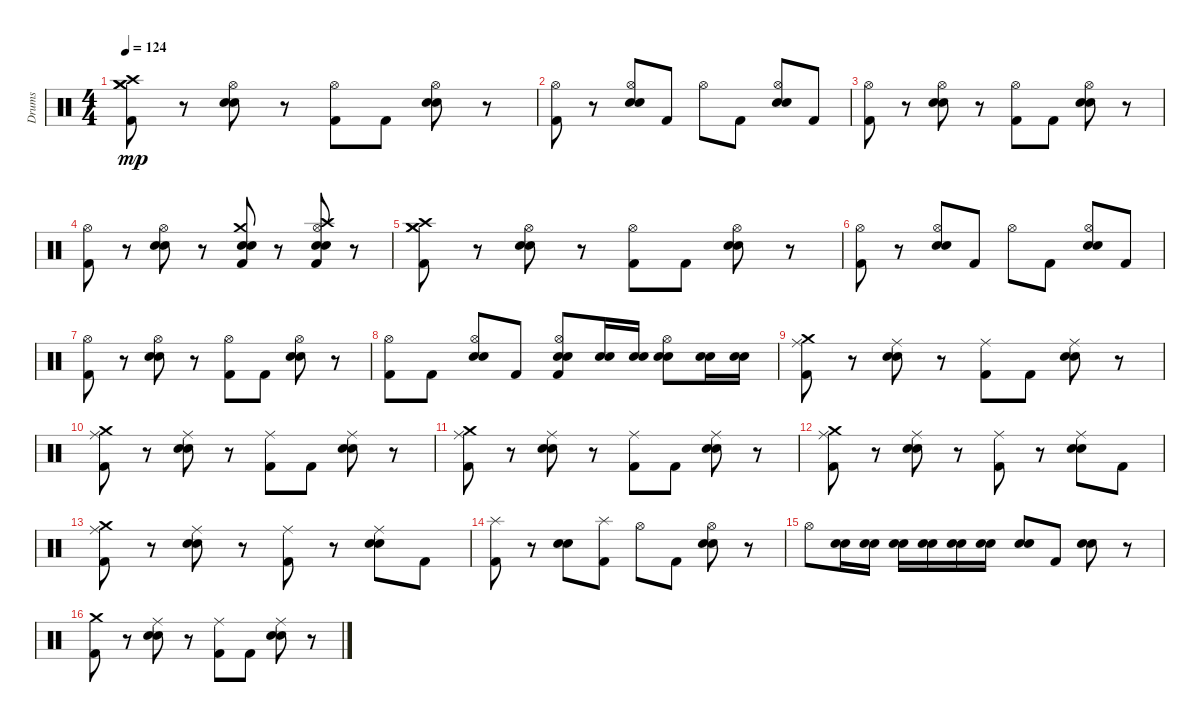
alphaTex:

\track ("Drums" "Drums") {instrument percussion}
\staff {score}
\articulation defaults
\ts (4 4)
\tempo 124
\clef neutral
\ks c
("Kick (hit) 2" "Crash medium (hit)" "Crash high (hit)" "Crash medium (hit)").8{dy mp} r.8 ("Snare (hit) 2" "Hi-Hat (open)" "Electric Snare (hit)").8 r.8 ("Kick (hit) 2" "Hi-Hat (open)").8 "Kick (hit) 2".8 ("Electric Snare (hit)" "Hi-Hat (open)" "Snare (hit) 2").8 r.8 |
("Kick (hit) 2" "Hi-Hat (open)").8 r.8 ("Hi-Hat (open)" "Snare (hit) 2" "Electric Snare (hit)").8 "Kick (hit) 2".8 "Hi-Hat (open)".8 "Kick (hit) 2".8 ("Electric Snare (hit)" "Snare (hit) 2" "Hi-Hat (open)").8 "Kick (hit) 2".8 |
("Kick (hit) 2" "Hi-Hat (open)").8 r.8 ("Electric Snare (hit)" "Hi-Hat (open)" "Snare (hit) 2").8 r.8 ("Kick (hit) 2" "Hi-Hat (open)").8 "Kick (hit) 2".8 ("Hi-Hat (open)" "Snare (hit) 2" "Electric Snare (hit)").8 r.8 |
("Kick (hit) 2" "Hi-Hat (open)").8 r.8 ("Electric Snare (hit)" "Hi-Hat (open)" "Snare (hit) 2").8 r.8 ("Electric Snare (hit)" "Snare (hit) 2" "Crash medium (hit)" "Kick (hit) 2").8 r.8 ("Kick (hit) 2" "Electric Snare (hit)" "Snare (hit) 2" "Hi-Hat (open)" "Crash high (hit)").8 r.8 |
("Crash high (hit)" "Crash medium (hit)" "Kick (hit) 2" "Crash medium (hit)").8 r.8 ("Snare (hit) 2" "Electric Snare (hit)" "Hi-Hat (open)").8 r.8 ("Hi-Hat (open)" "Kick (hit) 2").8 "Kick (hit) 2".8 ("Hi-Hat (open)" "Snare (hit) 2" "Electric Snare (hit)").8 r.8 |
("Kick (hit) 2" "Hi-Hat (open)").8 r.8 ("Snare (hit) 2" "Electric Snare (hit)" "Hi-Hat (open)").8 "Kick (hit) 2".8 "Hi-Hat (open)".8 "Kick (hit) 2".8 ("Snare (hit) 2" "Electric Snare (hit)" "Hi-Hat (open)").8 "Kick (hit) 2".8 |
("Hi-Hat (open)" "Kick (hit) 2").8 r.8 ("Snare (hit) 2" "Hi-Hat (open)" "Electric Snare (hit)").8 r.8 ("Kick (hit) 2" "Hi-Hat (open)").8 "Kick (hit) 2".8 ("Hi-Hat (open)" "Electric Snare (hit)" "Snare (hit) 2").8 r.8 |
("Kick (hit) 2" "Hi-Hat (open)").8 "Kick (hit) 2".8 ("Snare (hit) 2" "Hi-Hat (open)" "Electric Snare (hit)").8 "Kick (hit) 2".8 ("Kick (hit) 2" "Snare (hit) 2" "Hi-Hat (open)" "Electric Snare (hit)").8 ("Electric Snare (hit)" "Snare (hit) 2").16 ("Electric Snare (hit)" "Snare (hit) 2").16 ("Electric Snare (hit)" "Hi-Hat (open)" "Snare (hit) 2").8 ("Snare (hit) 2" "Electric Snare (hit)").16 ("Electric Snare (hit)" "Snare (hit) 2").16 |
("Ride (middle)" "Crash medium (hit)" "Kick (hit) 2").8 r.8 ("Ride (middle)" "Electric Snare (hit)" "Snare (hit) 2").8 r.8 ("Ride (middle)" "Kick (hit) 2").8 "Kick (hit) 2".8 ("Snare (hit) 2" "Ride (middle)" "Electric Snare (hit)").8 r.8 |
("Ride (middle)" "Kick (hit) 2" "Crash medium (hit)").8 r.8 ("Electric Snare (hit)" "Ride (middle)" "Snare (hit) 2").8 r.8 ("Ride (middle)" "Kick (hit) 2").8 "Kick (hit) 2".8 ("Snare (hit) 2" "Ride (middle)" "Electric Snare (hit)").8 r.8 |
("Crash medium (hit)" "Kick (hit) 2" "Ride (middle)").8 r.8 ("Electric Snare (hit)" "Snare (hit) 2" "Ride (middle)").8 r.8 ("Kick (hit) 2" "Ride (middle)").8 "Kick (hit) 2".8 ("Snare (hit) 2" "Ride (middle)" "Electric Snare (hit)").8 r.8 |
("Ride (middle)" "Kick (hit) 2" "Crash medium (hit)").8 r.8 ("Ride (middle)" "Electric Snare (hit)" "Snare (hit) 2").8 r.8 ("Kick (hit) 2" "Ride (middle)").8 r.8 ("Electric Snare (hit)" "Snare (hit) 2" "Ride (middle)").8 "Kick (hit) 2".8 |
("Kick (hit) 2" "Ride (middle)" "Crash medium (hit)").8 r.8 ("Ride (middle)" "Snare (hit) 2" "Electric Snare (hit)").8 r.8 ("Ride (middle)" "Kick (hit) 2").8 r.8 ("Electric Snare (hit)" "Ride (middle)" "Snare (hit) 2").8 "Kick (hit) 2".8 |
("Splash (hit)" "Kick (hit) 2").8 r.8 ("Snare (hit) 2" "Electric Snare (hit)").8 ("Kick (hit) 2" "Splash (hit)").8 "Hi-Hat (open)".8 "Kick (hit) 2".8 ("Snare (hit) 2" "Electric Snare (hit)" "Hi-Hat (open)").8 r.8 |
"Hi-Hat (open)".8 ("Snare (hit) 2" "Electric Snare (hit)").16 ("Snare (hit) 2" "Electric Snare (hit)").16 ("Snare (hit) 2" "Electric Snare (hit)").16 ("Electric Snare (hit)" "Snare (hit) 2").16 ("Snare (hit) 2" "Electric Snare (hit)").16 ("Snare (hit) 2" "Electric Snare (hit)").16 ("Electric Snare (hit)" "Snare (hit) 2").8 "Kick (hit) 2".8 ("Snare (hit) 2" "Electric Snare (hit)").8 r.8 |
("Crash medium (hit)" "Kick (hit) 2").8 r.8 ("Electric Snare (hit)" "Ride (middle)" "Snare (hit) 2").8 r.8 ("Ride (middle)" "Kick (hit) 2").8 "Kick (hit) 2".8 ("Ride (middle)" "Snare (hit) 2" "Electric Snare (hit)").8 r.8
